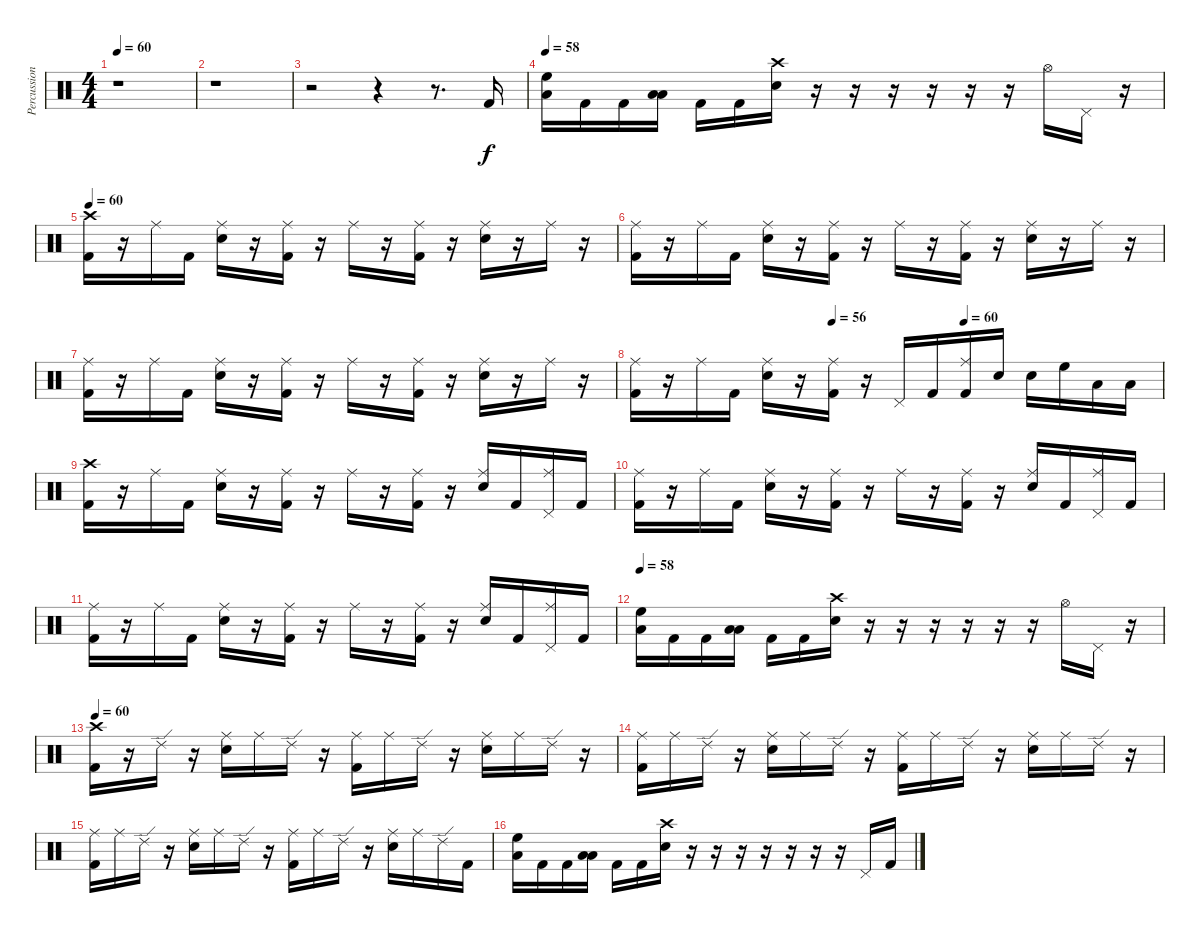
\track ("Percussion" "Percussion") {instrument percussion}
\staff {score}
\articulation defaults
\ts (4 4)
\tempo 60
\clef neutral
\ks c
r.1{dy f} |
r.1 |
r.2 r.4 r.8{d} "Kick (hit) 2".16 |
\tempo 58
("High Floor Tom (hit)" "Low Tom (hit)").16 "Kick (hit) 2".16 "Kick (hit) 2".16 ("Low Tom (hit)" "Low Floor Tom (hit)").16 "Kick (hit) 2".16 "Kick (hit) 2".16 ("Crash high (hit)" "Snare (hit) 2").16 r.16 r.16 r.16 r.16 r.16 r.16 "Hi-Hat (open)".16 "Pedal Hi-Hat (hit)".16 r.16 |
\tempo 60
("Crash high (hit)" "Kick (hit) 2").16 r.16 "Ride (middle)".16 "Kick (hit) 2".16 ("Ride (middle)" "Snare (hit) 2").16 r.16 ("Ride (middle)" "Kick (hit) 2").16 r.16 "Ride (middle)".16 r.16 ("Ride (middle)" "Kick (hit) 2").16 r.16 ("Ride (middle)" "Snare (hit) 2").16 r.16 "Ride (middle)".16 r.16 |
("Ride (middle)" "Kick (hit) 2").16 r.16 "Ride (middle)".16 "Kick (hit) 2".16 ("Ride (middle)" "Snare (hit) 2").16 r.16 ("Ride (middle)" "Kick (hit) 2").16 r.16 "Ride (middle)".16 r.16 ("Ride (middle)" "Kick (hit) 2").16 r.16 ("Ride (middle)" "Snare (hit) 2").16 r.16 "Ride (middle)".16 r.16 |
("Ride (middle)" "Kick (hit) 2").16 r.16 "Ride (middle)".16 "Kick (hit) 2".16 ("Ride (middle)" "Snare (hit) 2").16 r.16 ("Ride (middle)" "Kick (hit) 2").16 r.16 "Ride (middle)".16 r.16 ("Ride (middle)" "Kick (hit) 2").16 r.16 ("Ride (middle)" "Snare (hit) 2").16 r.16 "Ride (middle)".16 r.16 |
\tempo (56 0.375)
\tempo (60 0.625)
("Ride (middle)" "Kick (hit) 2").16 r.16 "Ride (middle)".16 "Kick (hit) 2".16 ("Ride (middle)" "Snare (hit) 2").16 r.16 ("Ride (middle)" "Kick (hit) 2").16 r.16 "Pedal Hi-Hat (hit)".16 "Kick (hit) 2".16 ("Ride (middle)" "Kick (hit) 2").16 "Snare (hit) 2".16 "Snare (hit) 2".16 "High Floor Tom (hit)".16 "Low Tom (hit)".16 "Low Floor Tom (hit)".16 |
("Crash high (hit)" "Kick (hit) 2").16 r.16 "Ride (middle)".16 "Kick (hit) 2".16 ("Ride (middle)" "Snare (hit) 2").16 r.16 ("Ride (middle)" "Kick (hit) 2").16 r.16 "Ride (middle)".16 r.16 ("Ride (middle)" "Kick (hit) 2").16 r.16 ("Ride (middle)" "Snare (hit) 2").16 "Kick (hit) 2".16 ("Pedal Hi-Hat (hit)" "Ride (middle)").16 "Kick (hit) 2".16 |
("Ride (middle)" "Kick (hit) 2").16 r.16 "Ride (middle)".16 "Kick (hit) 2".16 ("Ride (middle)" "Snare (hit) 2").16 r.16 ("Ride (middle)" "Kick (hit) 2").16 r.16 "Ride (middle)".16 r.16 ("Ride (middle)" "Kick (hit) 2").16 r.16 ("Ride (middle)" "Snare (hit) 2").16 "Kick (hit) 2".16 ("Pedal Hi-Hat (hit)" "Ride (middle)").16 "Kick (hit) 2".16 |
("Ride (middle)" "Kick (hit) 2").16 r.16 "Ride (middle)".16 "Kick (hit) 2".16 ("Ride (middle)" "Snare (hit) 2").16 r.16 ("Ride (middle)" "Kick (hit) 2").16 r.16 "Ride (middle)".16 r.16 ("Ride (middle)" "Kick (hit) 2").16 r.16 ("Ride (middle)" "Snare (hit) 2").16 "Kick (hit) 2".16 ("Pedal Hi-Hat (hit)" "Ride (middle)").16 "Kick (hit) 2".16 |
\tempo 58
("High Floor Tom (hit)" "Low Tom (hit)").16 "Kick (hit) 2".16 "Kick (hit) 2".16 ("Low Tom (hit)" "Low Floor Tom (hit)").16 "Kick (hit) 2".16 "Kick (hit) 2".16 ("Crash high (hit)" "Snare (hit) 2").16 r.16 r.16 r.16 r.16 r.16 r.16 "Hi-Hat (open)".16 "Pedal Hi-Hat (hit)".16 r.16 |
\tempo 60
("Crash high (hit)" "Kick (hit) 2").16 r.16 "Ride (edge) 2".16 r.16 ("Ride (middle)" "Snare (hit) 2").16 "Ride (middle)".16 "Ride (edge) 2".16 r.16 ("Ride (middle)" "Kick (hit) 2").16 "Ride (middle)".16 "Ride (edge) 2".16 r.16 ("Ride (middle)" "Snare (hit) 2").16 "Ride (middle)".16 "Ride (edge) 2".16 r.16 |
("Ride (middle)" "Kick (hit) 2").16 "Ride (middle)".16 "Ride (edge) 2".16 r.16 ("Ride (middle)" "Snare (hit) 2").16 "Ride (middle)".16 "Ride (edge) 2".16 r.16 ("Ride (middle)" "Kick (hit) 2").16 "Ride (middle)".16 "Ride (edge) 2".16 r.16 ("Ride (middle)" "Snare (hit) 2").16 "Ride (middle)".16 "Ride (edge) 2".16 r.16 |
("Ride (middle)" "Kick (hit) 2").16 "Ride (middle)".16 "Ride (edge) 2".16 r.16 ("Ride (middle)" "Snare (hit) 2").16 "Ride (middle)".16 "Ride (edge) 2".16 r.16 ("Ride (middle)" "Kick (hit) 2").16 "Ride (middle)".16 "Ride (edge) 2".16 r.16 ("Ride (middle)" "Snare (hit) 2").16 "Ride (middle)".16 "Ride (edge) 2".16 "Kick (hit) 2".16 |
("High Floor Tom (hit)" "Low Tom (hit)").16 "Kick (hit) 2".16 "Kick (hit) 2".16 ("Low Tom (hit)" "Low Floor Tom (hit)").16 "Kick (hit) 2".16 "Kick (hit) 2".16 ("Crash high (hit)" "Snare (hit) 2").16 r.16 r.16 r.16 r.16 r.16 r.16 r.16 "Pedal Hi-Hat (hit)".16 "Kick (hit) 2".16
